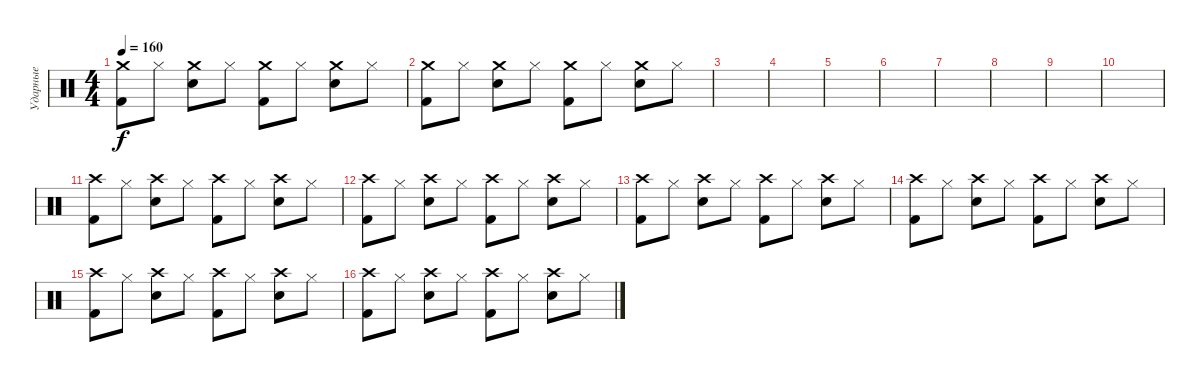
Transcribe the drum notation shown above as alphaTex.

\track ("Ударные" "Ударные") {instrument percussion}
\staff {score}
\articulation defaults
\ts (4 4)
\tempo 160
\clef neutral
\ks c
("Crash medium (hit)" "Kick (hit) 2").8{dy f} "Hi-Hat (closed)".8 ("Crash medium (hit)" "Snare (hit) 2").8 "Hi-Hat (closed)".8 ("Crash medium (hit)" "Kick (hit) 2").8 "Hi-Hat (closed)".8 ("Crash medium (hit)" "Snare (hit) 2").8 "Hi-Hat (closed)".8 |
("Crash medium (hit)" "Kick (hit) 2").8 "Hi-Hat (closed)".8 ("Crash medium (hit)" "Snare (hit) 2").8 "Hi-Hat (closed)".8 ("Crash medium (hit)" "Kick (hit) 2").8 "Hi-Hat (closed)".8 ("Crash medium (hit)" "Snare (hit) 2").8 "Hi-Hat (closed)".8 |
|
|
|
|
|
|
|
|
("Crash high (hit)" "Kick (hit) 2").8 "Hi-Hat (closed)".8 ("Crash high (hit)" "Snare (hit) 2").8 "Hi-Hat (closed)".8 ("Crash high (hit)" "Kick (hit) 2").8 "Hi-Hat (closed)".8 ("Crash high (hit)" "Snare (hit) 2").8 "Hi-Hat (closed)".8 |
("Crash high (hit)" "Kick (hit) 2").8 "Hi-Hat (closed)".8 ("Crash high (hit)" "Snare (hit) 2").8 "Hi-Hat (closed)".8 ("Crash high (hit)" "Kick (hit) 2").8 "Hi-Hat (closed)".8 ("Crash high (hit)" "Snare (hit) 2").8 "Hi-Hat (closed)".8 |
("Crash high (hit)" "Kick (hit) 2").8 "Hi-Hat (closed)".8 ("Crash high (hit)" "Snare (hit) 2").8 "Hi-Hat (closed)".8 ("Crash high (hit)" "Kick (hit) 2").8 "Hi-Hat (closed)".8 ("Crash high (hit)" "Snare (hit) 2").8 "Hi-Hat (closed)".8 |
("Crash high (hit)" "Kick (hit) 2").8 "Hi-Hat (closed)".8 ("Crash high (hit)" "Snare (hit) 2").8 "Hi-Hat (closed)".8 ("Crash high (hit)" "Kick (hit) 2").8 "Hi-Hat (closed)".8 ("Crash high (hit)" "Snare (hit) 2").8 "Hi-Hat (closed)".8 |
("Crash high (hit)" "Kick (hit) 2").8 "Hi-Hat (closed)".8 ("Crash high (hit)" "Snare (hit) 2").8 "Hi-Hat (closed)".8 ("Crash high (hit)" "Kick (hit) 2").8 "Hi-Hat (closed)".8 ("Crash high (hit)" "Snare (hit) 2").8 "Hi-Hat (closed)".8 |
("Crash high (hit)" "Kick (hit) 2").8 "Hi-Hat (closed)".8 ("Crash high (hit)" "Snare (hit) 2").8 "Hi-Hat (closed)".8 ("Crash high (hit)" "Kick (hit) 2").8 "Hi-Hat (closed)".8 ("Crash high (hit)" "Snare (hit) 2").8 "Hi-Hat (closed)".8
